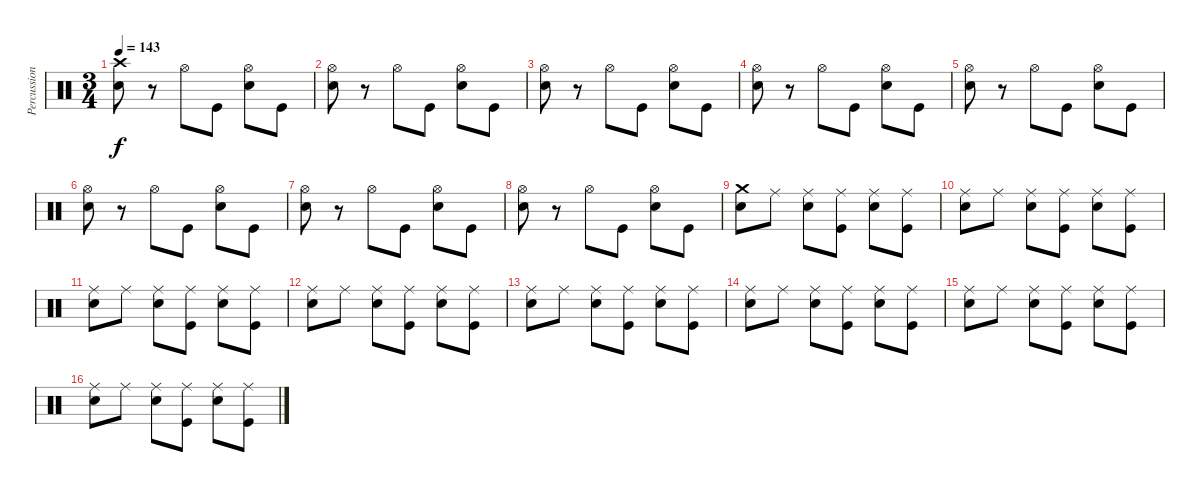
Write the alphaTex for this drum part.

\track ("Percussion" "Percussion") {instrument percussion}
\staff {score}
\articulation defaults
\ts (3 4)
\tempo 143
\clef neutral
\ks c
("Crash high (hit)" "Electric Snare (hit)").8{dy f} r.8 "Hi-Hat (open)".8 "Kick (hit)".8 ("Hi-Hat (open)" "Electric Snare (hit)").8 "Kick (hit)".8 |
("Hi-Hat (open)" "Electric Snare (hit)").8 r.8 "Hi-Hat (open)".8 "Kick (hit)".8 ("Hi-Hat (open)" "Electric Snare (hit)").8 "Kick (hit)".8 |
("Hi-Hat (open)" "Electric Snare (hit)").8 r.8 "Hi-Hat (open)".8 "Kick (hit)".8 ("Hi-Hat (open)" "Electric Snare (hit)").8 "Kick (hit)".8 |
("Hi-Hat (open)" "Electric Snare (hit)").8 r.8 "Hi-Hat (open)".8 "Kick (hit)".8 ("Hi-Hat (open)" "Electric Snare (hit)").8 "Kick (hit)".8 |
("Hi-Hat (open)" "Electric Snare (hit)").8 r.8 "Hi-Hat (open)".8 "Kick (hit)".8 ("Hi-Hat (open)" "Electric Snare (hit)").8 "Kick (hit)".8 |
("Hi-Hat (open)" "Electric Snare (hit)").8 r.8 "Hi-Hat (open)".8 "Kick (hit)".8 ("Hi-Hat (open)" "Electric Snare (hit)").8 "Kick (hit)".8 |
("Hi-Hat (open)" "Electric Snare (hit)").8 r.8 "Hi-Hat (open)".8 "Kick (hit)".8 ("Hi-Hat (open)" "Electric Snare (hit)").8 "Kick (hit)".8 |
("Hi-Hat (open)" "Electric Snare (hit)").8 r.8 "Hi-Hat (open)".8 "Kick (hit)".8 ("Hi-Hat (open)" "Electric Snare (hit)").8 "Kick (hit)".8 |
("Crash medium (hit)" "Electric Snare (hit)").8 "Ride (middle)".8 ("Ride (middle)" "Electric Snare (hit)").8 ("Ride (middle)" "Kick (hit)").8 ("Ride (middle)" "Electric Snare (hit)").8 ("Ride (middle)" "Kick (hit)").8 |
("Ride (middle)" "Electric Snare (hit)").8 "Ride (middle)".8 ("Ride (middle)" "Electric Snare (hit)").8 ("Ride (middle)" "Kick (hit)").8 ("Ride (middle)" "Electric Snare (hit)").8 ("Ride (middle)" "Kick (hit)").8 |
("Ride (middle)" "Electric Snare (hit)").8 "Ride (middle)".8 ("Ride (middle)" "Electric Snare (hit)").8 ("Ride (middle)" "Kick (hit)").8 ("Ride (middle)" "Electric Snare (hit)").8 ("Ride (middle)" "Kick (hit)").8 |
("Ride (middle)" "Electric Snare (hit)").8 "Ride (middle)".8 ("Ride (middle)" "Electric Snare (hit)").8 ("Ride (middle)" "Kick (hit)").8 ("Ride (middle)" "Electric Snare (hit)").8 ("Ride (middle)" "Kick (hit)").8 |
("Ride (middle)" "Electric Snare (hit)").8 "Ride (middle)".8 ("Ride (middle)" "Electric Snare (hit)").8 ("Ride (middle)" "Kick (hit)").8 ("Ride (middle)" "Electric Snare (hit)").8 ("Ride (middle)" "Kick (hit)").8 |
("Ride (middle)" "Electric Snare (hit)").8 "Ride (middle)".8 ("Ride (middle)" "Electric Snare (hit)").8 ("Ride (middle)" "Kick (hit)").8 ("Ride (middle)" "Electric Snare (hit)").8 ("Ride (middle)" "Kick (hit)").8 |
("Ride (middle)" "Electric Snare (hit)").8 "Ride (middle)".8 ("Ride (middle)" "Electric Snare (hit)").8 ("Ride (middle)" "Kick (hit)").8 ("Ride (middle)" "Electric Snare (hit)").8 ("Ride (middle)" "Kick (hit)").8 |
("Ride (middle)" "Electric Snare (hit)").8 "Ride (middle)".8 ("Ride (middle)" "Electric Snare (hit)").8 ("Ride (middle)" "Kick (hit)").8 ("Ride (middle)" "Electric Snare (hit)").8 ("Ride (middle)" "Kick (hit)").8
